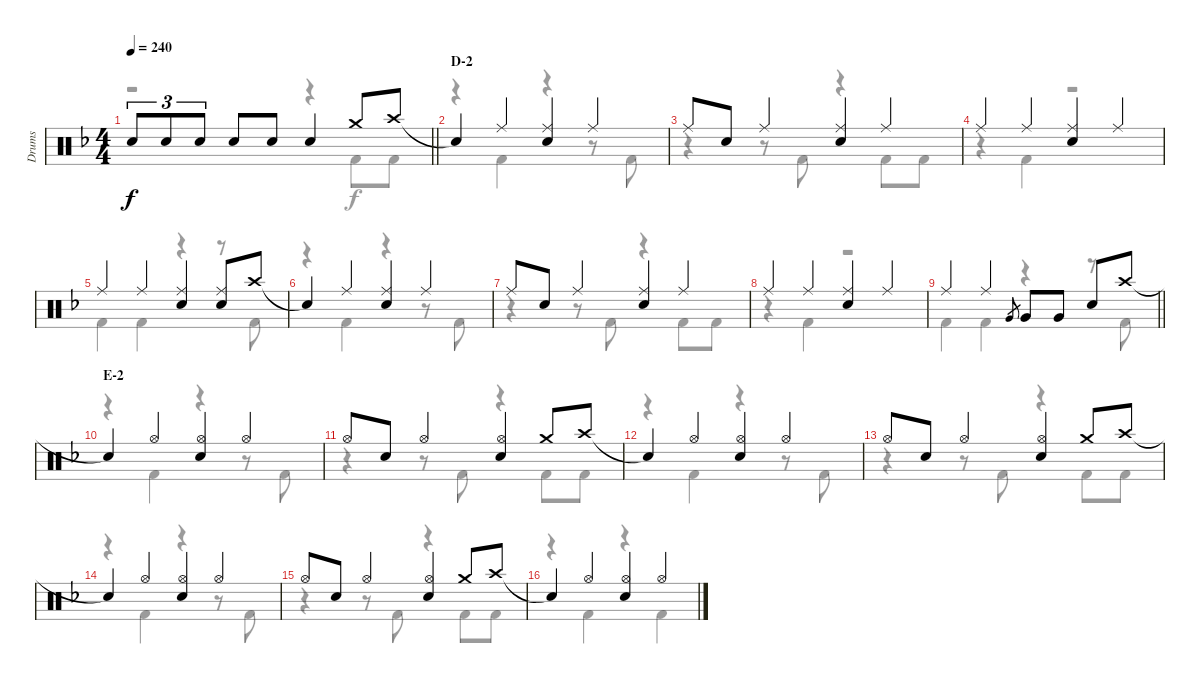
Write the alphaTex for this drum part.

\track ("Drums" "Drums") {instrument percussion}
\staff {score}
\articulation defaults
\voice
\ts (4 4)
\tempo 240
\clef neutral
\barLineRight lightlight
\ks f "Snare (hit) 2".8{tu (3 2) dy f} "Snare (hit) 2".8{tu (3 2)} "Snare (hit) 2".8{tu (3 2)} "Snare (hit) 2".8 "Snare (hit) 2".8 "Snare (hit) 2".4 "Crash medium (hit)".8 "Crash high (hit)".8
|
\section ("" "D-2")
"Snare (hit)"{t}.4 "Ride (middle)".4 ("Ride (middle)" "Snare (hit) 2").4 "Ride (middle)".4 |
"Ride (middle)".8 "Snare (hit) 2".8 "Ride (middle)".4 ("Ride (middle)" "Snare (hit) 2").4 "Ride (middle)".4 |
"Ride (middle)".4 "Ride (middle)".4 ("Ride (middle)" "Snare (hit) 2").4 "Ride (middle)".4 |
"Ride (middle)".4 "Ride (middle)".4 ("Ride (middle)" "Snare (hit) 2").4 ("Ride (middle)" "Snare (hit) 2").8 "Crash high (hit)".8 |
"Snare (hit)"{t}.4 "Ride (middle)".4 ("Ride (middle)" "Snare (hit) 2").4 "Ride (middle)".4 |
"Ride (middle)".8 "Snare (hit) 2".8 "Ride (middle)".4 ("Ride (middle)" "Snare (hit) 2").4 "Ride (middle)".4 |
"Ride (middle)".4 "Ride (middle)".4 ("Ride (middle)" "Snare (hit) 2").4 "Ride (middle)".4 |
\barLineRight lightlight "Ride (middle)".4 "Ride (middle)".4 "Very Low Tom (hit)".8{gr} "Very Low Tom (hit)".8 "Very Low Tom (hit)".8 "Snare (hit) 2".8 "Crash high (hit)".8
|
\section ("" "E-2")
"Snare (hit)"{t}.4 "Hi-Hat (open)".4 ("Hi-Hat (open)" "Snare (hit) 2").4 "Hi-Hat (open)".4 |
"Hi-Hat (open)".8 "Snare (hit) 2".8 "Hi-Hat (open)".4 ("Hi-Hat (open)" "Snare (hit) 2").4 "Crash medium (hit)".8 "Crash high (hit)".8 |
"Snare (hit)"{t}.4 "Hi-Hat (open)".4 ("Hi-Hat (open)" "Snare (hit) 2").4 "Hi-Hat (open)".4 |
"Hi-Hat (open)".8 "Snare (hit) 2".8 "Hi-Hat (open)".4 ("Hi-Hat (open)" "Snare (hit) 2").4 "Crash medium (hit)".8 "Crash high (hit)".8 |
"Snare (hit)"{t}.4 "Hi-Hat (open)".4 ("Hi-Hat (open)" "Snare (hit) 2").4 "Hi-Hat (open)".4 |
"Hi-Hat (open)".8 "Snare (hit) 2".8 "Hi-Hat (open)".4 ("Hi-Hat (open)" "Snare (hit) 2").4 "Crash medium (hit)".8 "Crash high (hit)".8 |
"Snare (hit)"{t}.4 "Hi-Hat (open)".4 ("Hi-Hat (open)" "Snare (hit) 2").4 "Hi-Hat (open)".4
\voice
\clef neutral
\ottava regular
\simile none
\barLineRight lightlight
\ks f
r.2{dy f} r.4 "Kick (hit) 2".8 "Kick (hit) 2".8 |
r.4 "Kick (hit) 2".4 r.4 r.8 "Kick (hit) 2".8 |
r.4 r.8 "Kick (hit) 2".8 r.4 "Kick (hit) 2".8 "Kick (hit) 2".8 |
r.4 "Kick (hit) 2".4 r.2 |
"Kick (hit) 2".4 "Kick (hit) 2".4 r.4 r.8 "Kick (hit) 2".8 |
r.4 "Kick (hit) 2".4 r.4 r.8 "Kick (hit) 2".8 |
r.4 r.8 "Kick (hit) 2".8 r.4 "Kick (hit) 2".8 "Kick (hit) 2".8 |
r.4 "Kick (hit) 2".4 r.2 |
\barLineRight lightlight "Kick (hit) 2".4 "Kick (hit) 2".4
r.4 r.8 "Kick (hit) 2".8 |
r.4 "Kick (hit) 2".4 r.4 r.8 "Kick (hit) 2".8 |
r.4 r.8 "Kick (hit) 2".8 r.4 "Kick (hit) 2".8 "Kick (hit) 2".8 |
r.4 "Kick (hit) 2".4 r.4 r.8 "Kick (hit) 2".8 |
r.4 r.8 "Kick (hit) 2".8 r.4 "Kick (hit) 2".8 "Kick (hit) 2".8 |
r.4 "Kick (hit) 2".4 r.4 r.8 "Kick (hit) 2".8 |
r.4 r.8 "Kick (hit) 2".8 r.4 "Kick (hit) 2".8 "Kick (hit) 2".8 |
r.4 "Kick (hit) 2".4 r.4 "Kick (hit) 2".4
